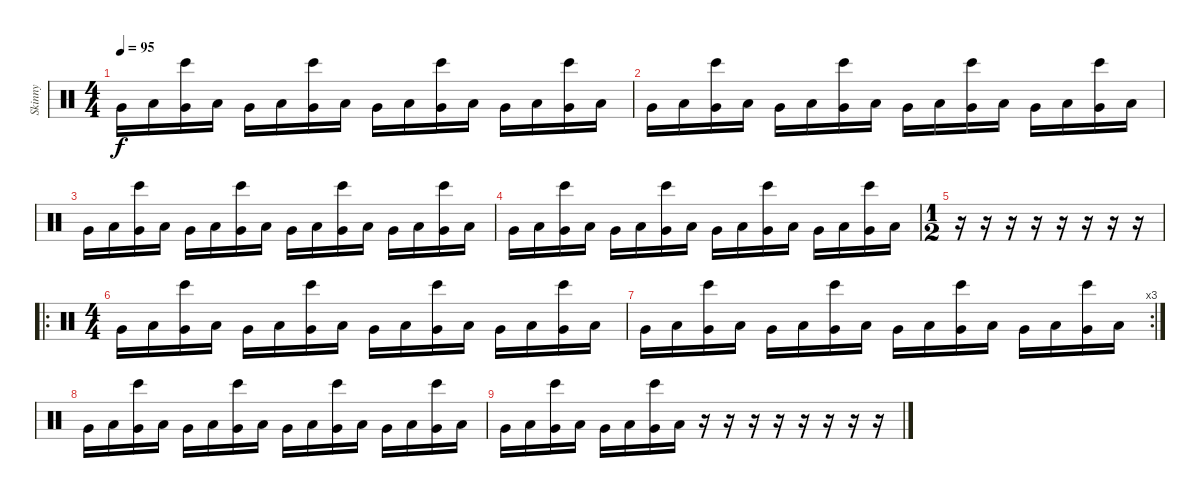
\track ("Skinny" "Skinny") {instrument percussion}
\staff {score}
\articulation defaults
\ts (4 4)
\tempo 95
\clef neutral
\ks c "Very Low Tom (hit)".16{dy f} "Low Tom (hit)".16
("Very Low Tom (hit)" "Bongo High (hit)").16 "Low Tom (hit)".16 "Very Low Tom (hit)".16 "Low Tom (hit)".16 ("Very Low Tom (hit)" "Bongo High (hit)").16 "Low Tom (hit)".16 "Very Low Tom (hit)".16 "Low Tom (hit)".16 ("Very Low Tom (hit)" "Bongo High (hit)").16 "Low Tom (hit)".16 "Very Low Tom (hit)".16 "Low Tom (hit)".16 ("Very Low Tom (hit)" "Bongo High (hit)").16 "Low Tom (hit)".16 |
"Very Low Tom (hit)".16 "Low Tom (hit)".16 ("Very Low Tom (hit)" "Bongo High (hit)").16 "Low Tom (hit)".16 "Very Low Tom (hit)".16 "Low Tom (hit)".16 ("Very Low Tom (hit)" "Bongo High (hit)").16 "Low Tom (hit)".16 "Very Low Tom (hit)".16 "Low Tom (hit)".16 ("Very Low Tom (hit)" "Bongo High (hit)").16 "Low Tom (hit)".16 "Very Low Tom (hit)".16 "Low Tom (hit)".16 ("Very Low Tom (hit)" "Bongo High (hit)").16 "Low Tom (hit)".16 |
"Very Low Tom (hit)".16 "Low Tom (hit)".16 ("Very Low Tom (hit)" "Bongo High (hit)").16 "Low Tom (hit)".16 "Very Low Tom (hit)".16 "Low Tom (hit)".16 ("Very Low Tom (hit)" "Bongo High (hit)").16 "Low Tom (hit)".16 "Very Low Tom (hit)".16 "Low Tom (hit)".16 ("Very Low Tom (hit)" "Bongo High (hit)").16 "Low Tom (hit)".16 "Very Low Tom (hit)".16 "Low Tom (hit)".16 ("Very Low Tom (hit)" "Bongo High (hit)").16 "Low Tom (hit)".16 |
"Very Low Tom (hit)".16 "Low Tom (hit)".16 ("Very Low Tom (hit)" "Bongo High (hit)").16 "Low Tom (hit)".16 "Very Low Tom (hit)".16 "Low Tom (hit)".16 ("Very Low Tom (hit)" "Bongo High (hit)").16 "Low Tom (hit)".16 "Very Low Tom (hit)".16 "Low Tom (hit)".16 ("Very Low Tom (hit)" "Bongo High (hit)").16 "Low Tom (hit)".16 "Very Low Tom (hit)".16 "Low Tom (hit)".16 ("Very Low Tom (hit)" "Bongo High (hit)").16 "Low Tom (hit)".16 |
\ts (1 2)
r.16 r.16 r.16 r.16 r.16 r.16 r.16 r.16 |
\ro
\ts (4 4)
"Very Low Tom (hit)".16 "Low Tom (hit)".16 ("Very Low Tom (hit)" "Bongo High (hit)").16 "Low Tom (hit)".16 "Very Low Tom (hit)".16 "Low Tom (hit)".16 ("Very Low Tom (hit)" "Bongo High (hit)").16 "Low Tom (hit)".16 "Very Low Tom (hit)".16 "Low Tom (hit)".16 ("Very Low Tom (hit)" "Bongo High (hit)").16 "Low Tom (hit)".16 "Very Low Tom (hit)".16 "Low Tom (hit)".16 ("Very Low Tom (hit)" "Bongo High (hit)").16 "Low Tom (hit)".16 |
\rc 3 "Very Low Tom (hit)".16 "Low Tom (hit)".16
("Very Low Tom (hit)" "Bongo High (hit)").16 "Low Tom (hit)".16 "Very Low Tom (hit)".16 "Low Tom (hit)".16 ("Very Low Tom (hit)" "Bongo High (hit)").16 "Low Tom (hit)".16 "Very Low Tom (hit)".16 "Low Tom (hit)".16 ("Very Low Tom (hit)" "Bongo High (hit)").16 "Low Tom (hit)".16 "Very Low Tom (hit)".16 "Low Tom (hit)".16 ("Very Low Tom (hit)" "Bongo High (hit)").16 "Low Tom (hit)".16 |
"Very Low Tom (hit)".16 "Low Tom (hit)".16 ("Very Low Tom (hit)" "Bongo High (hit)").16 "Low Tom (hit)".16 "Very Low Tom (hit)".16 "Low Tom (hit)".16 ("Very Low Tom (hit)" "Bongo High (hit)").16 "Low Tom (hit)".16 "Very Low Tom (hit)".16 "Low Tom (hit)".16 ("Very Low Tom (hit)" "Bongo High (hit)").16 "Low Tom (hit)".16 "Very Low Tom (hit)".16 "Low Tom (hit)".16 ("Very Low Tom (hit)" "Bongo High (hit)").16 "Low Tom (hit)".16 |
"Very Low Tom (hit)".16 "Low Tom (hit)".16 ("Very Low Tom (hit)" "Bongo High (hit)").16 "Low Tom (hit)".16 "Very Low Tom (hit)".16 "Low Tom (hit)".16 ("Very Low Tom (hit)" "Bongo High (hit)").16 "Low Tom (hit)".16 r.16 r.16 r.16 r.16 r.16 r.16 r.16 r.16
